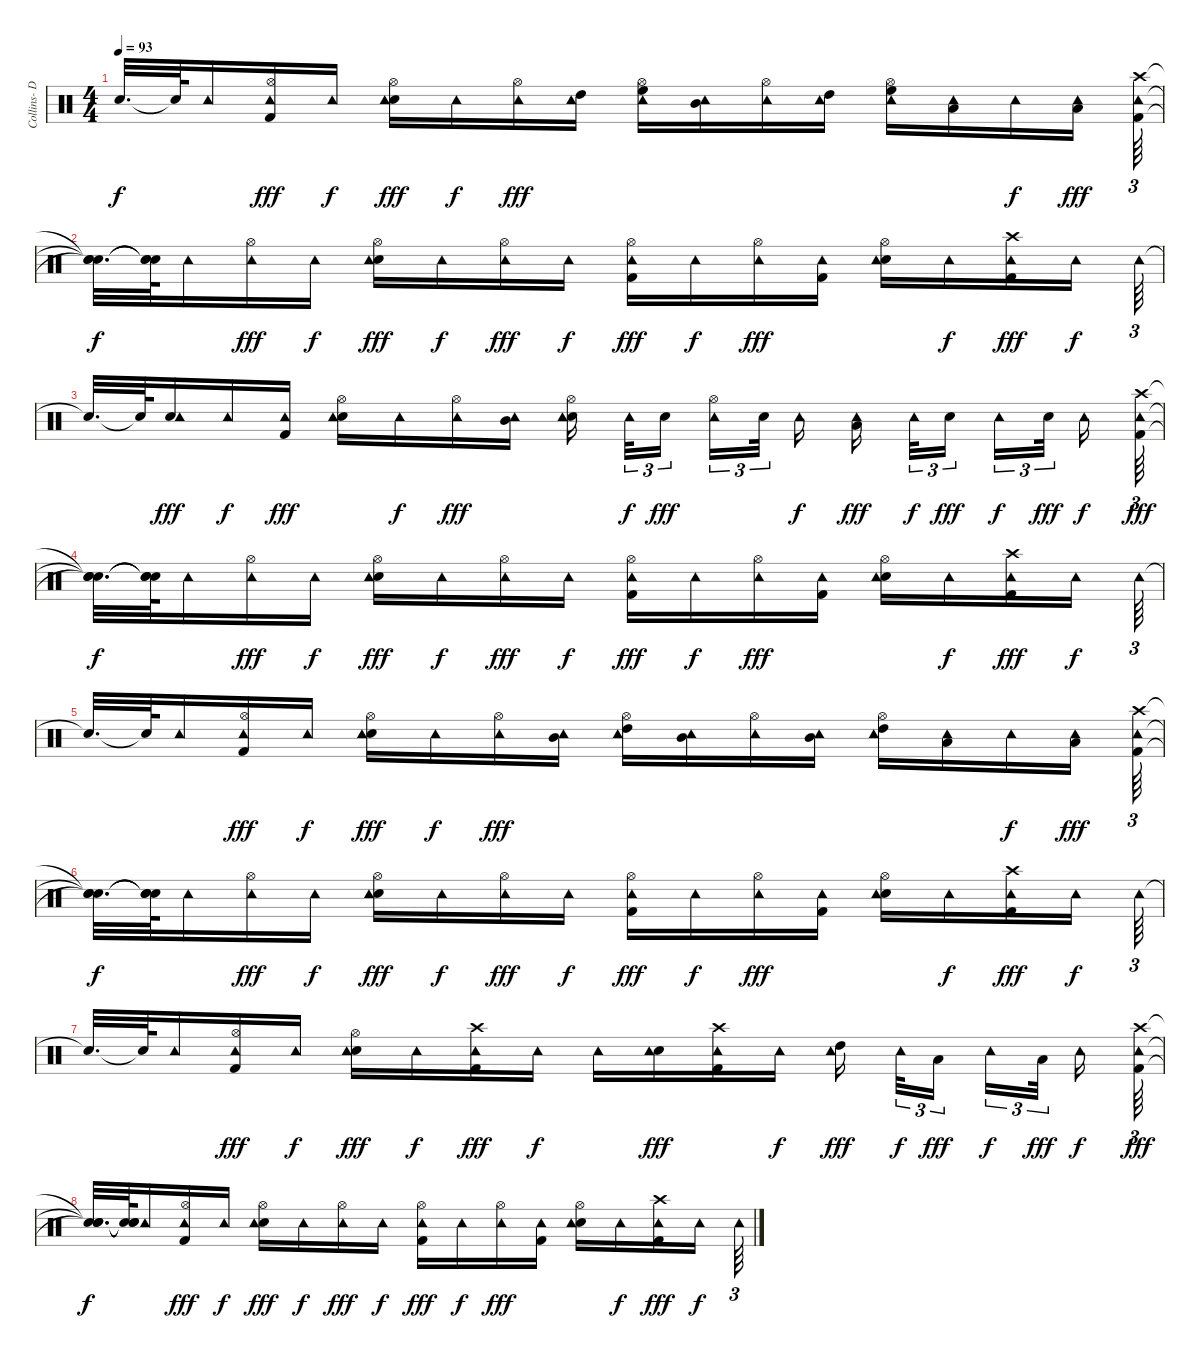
\track ("Collins- Drums" "Collins- D") {instrument percussion}
\staff {score}
\articulation defaults
\ts (4 4)
\tempo 93
\clef neutral
\ks c "Snare (hit)"{t}.32{d dy f} "Snare (hit)"{t}.64 "Tambourine (hit)".16
("Hi-Hat (open)" "Kick (hit) 2" "Tambourine (hit)").16{dy fff} "Tambourine (hit)".16{dy f} ("Hi-Hat (open)" "Electric Snare (hit)" "Tambourine (hit)").16{dy fff} "Tambourine (hit)".16{dy f} ("Hi-Hat (open)" "Tambourine (hit)").16{dy fff} ("High Tom (hit)" "Tambourine (hit)").16 ("High Floor Tom (hit)" "Hi-Hat (open)" "Tambourine (hit)").16 ("Mid Tom (hit)" "Tambourine (hit)").16 ("Hi-Hat (open)" "Tambourine (hit)").16 ("High Tom (hit)" "Tambourine (hit)").16 ("Hi-Hat (open)" "High Floor Tom (hit)" "Tambourine (hit)").16 ("Low Tom (hit)" "Tambourine (hit)").16 "Tambourine (hit)".16{dy f} ("Low Tom (hit)" "Tambourine (hit)").16{dy fff} ("Crash high (hit)" "Kick (hit) 2" "Tambourine (hit)").64{tu (3 2)} |
("Snare (hit)"{t} "Snare (hit)"{t} "Snare (hit)"{t}).32{d dy f} ("Snare (hit)"{t} "Snare (hit)"{t} "Snare (hit)"{t}).64 "Tambourine (hit)".16 ("Hi-Hat (open)" "Tambourine (hit)").16{dy fff} "Tambourine (hit)".16{dy f} ("Hi-Hat (open)" "Electric Snare (hit)" "Tambourine (hit)").16{dy fff} "Tambourine (hit)".16{dy f} ("Hi-Hat (open)" "Tambourine (hit)").16{dy fff} "Tambourine (hit)".16{dy f} ("Hi-Hat (open)" "Kick (hit) 2" "Tambourine (hit)").16{dy fff} "Tambourine (hit)".16{dy f} ("Hi-Hat (open)" "Tambourine (hit)").16{dy fff} ("Kick (hit) 2" "Tambourine (hit)").16 ("Hi-Hat (open)" "Electric Snare (hit)" "Tambourine (hit)").16 "Tambourine (hit)".16{dy f} ("Kick (hit) 2" "Crash high (hit)" "Tambourine (hit)").16{dy fff} "Tambourine (hit)".16{dy f} "Tambourine (hit)".64{tu (3 2)} |
"Snare (hit)"{t}.32{d} "Snare (hit)"{t}.64 ("Electric Snare (hit)" "Tambourine (hit)").16{dy fff} "Tambourine (hit)".16{dy f} ("Kick (hit) 2" "Tambourine (hit)").16{dy fff} ("Hi-Hat (open)" "Electric Snare (hit)" "Tambourine (hit)").16 "Tambourine (hit)".16{dy f} ("Hi-Hat (open)" "Tambourine (hit)").16{dy fff} ("Mid Tom (hit)" "Tambourine (hit)").16 ("Electric Snare (hit)" "Hi-Hat (open)" "Tambourine (hit)").16{beam splitsecondary} "Tambourine (hit)".32{tu (3 2) dy f} "Electric Snare (hit)".16{tu (3 2) dy fff beam splitsecondary} ("Hi-Hat (open)" "Tambourine (hit)").16{tu (3 2)} "Electric Snare (hit)".32{tu (3 2) beam splitsecondary} "Tambourine (hit)".16{dy f} ("Low Tom (hit)" "Tambourine (hit)").16{dy fff beam splitsecondary} "Tambourine (hit)".32{tu (3 2) dy f} "Electric Snare (hit)".16{tu (3 2) dy fff beam splitsecondary} "Tambourine (hit)".16{tu (3 2) dy f} "Electric Snare (hit)".32{tu (3 2) dy fff beam splitsecondary} "Tambourine (hit)".16{dy f} ("Crash high (hit)" "Kick (hit) 2" "Tambourine (hit)").64{tu (3 2) dy fff} |
("Snare (hit)"{t} "Snare (hit)"{t} "Snare (hit)"{t}).32{d dy f} ("Snare (hit)"{t} "Snare (hit)"{t} "Snare (hit)"{t}).64 "Tambourine (hit)".16 ("Hi-Hat (open)" "Tambourine (hit)").16{dy fff} "Tambourine (hit)".16{dy f} ("Hi-Hat (open)" "Electric Snare (hit)" "Tambourine (hit)").16{dy fff} "Tambourine (hit)".16{dy f} ("Hi-Hat (open)" "Tambourine (hit)").16{dy fff} "Tambourine (hit)".16{dy f} ("Hi-Hat (open)" "Kick (hit) 2" "Tambourine (hit)").16{dy fff} "Tambourine (hit)".16{dy f} ("Hi-Hat (open)" "Tambourine (hit)").16{dy fff} ("Kick (hit) 2" "Tambourine (hit)").16 ("Hi-Hat (open)" "Electric Snare (hit)" "Tambourine (hit)").16 "Tambourine (hit)".16{dy f} ("Kick (hit) 2" "Crash high (hit)" "Tambourine (hit)").16{dy fff} "Tambourine (hit)".16{dy f} "Tambourine (hit)".64{tu (3 2)} |
"Snare (hit)"{t}.32{d} "Snare (hit)"{t}.64 "Tambourine (hit)".16 ("Hi-Hat (open)" "Kick (hit) 2" "Tambourine (hit)").16{dy fff} "Tambourine (hit)".16{dy f} ("Hi-Hat (open)" "Electric Snare (hit)" "Tambourine (hit)").16{dy fff} "Tambourine (hit)".16{dy f} ("Hi-Hat (open)" "Tambourine (hit)").16{dy fff} ("Mid Tom (hit)" "Tambourine (hit)").16 ("High Tom (hit)" "Hi-Hat (open)" "Tambourine (hit)").16 ("Mid Tom (hit)" "Tambourine (hit)").16 ("Hi-Hat (open)" "Tambourine (hit)").16 ("Mid Tom (hit)" "Tambourine (hit)").16 ("Hi-Hat (open)" "High Tom (hit)" "Tambourine (hit)").16 ("Low Tom (hit)" "Tambourine (hit)").16 "Tambourine (hit)".16{dy f} ("Low Tom (hit)" "Tambourine (hit)").16{dy fff} ("Crash high (hit)" "Kick (hit) 2" "Tambourine (hit)").64{tu (3 2)} |
("Snare (hit)"{t} "Snare (hit)"{t} "Snare (hit)"{t}).32{d dy f} ("Snare (hit)"{t} "Snare (hit)"{t} "Snare (hit)"{t}).64 "Tambourine (hit)".16 ("Hi-Hat (open)" "Tambourine (hit)").16{dy fff} "Tambourine (hit)".16{dy f} ("Hi-Hat (open)" "Electric Snare (hit)" "Tambourine (hit)").16{dy fff} "Tambourine (hit)".16{dy f} ("Hi-Hat (open)" "Tambourine (hit)").16{dy fff} "Tambourine (hit)".16{dy f} ("Hi-Hat (open)" "Kick (hit) 2" "Tambourine (hit)").16{dy fff} "Tambourine (hit)".16{dy f} ("Hi-Hat (open)" "Tambourine (hit)").16{dy fff} ("Kick (hit) 2" "Tambourine (hit)").16 ("Hi-Hat (open)" "Electric Snare (hit)" "Tambourine (hit)").16 "Tambourine (hit)".16{dy f} ("Kick (hit) 2" "Crash high (hit)" "Tambourine (hit)").16{dy fff} "Tambourine (hit)".16{dy f} "Tambourine (hit)".64{tu (3 2)} |
"Snare (hit)"{t}.32{d} "Snare (hit)"{t}.64 "Tambourine (hit)".16 ("Hi-Hat (open)" "Kick (hit) 2" "Tambourine (hit)").16{dy fff} "Tambourine (hit)".16{dy f} ("Hi-Hat (open)" "Electric Snare (hit)" "Tambourine (hit)").16{dy fff} "Tambourine (hit)".16{dy f} ("Kick (hit) 2" "Crash high (hit)" "Tambourine (hit)").16{dy fff} "Tambourine (hit)".16{dy f} "Tambourine (hit)".16 ("Electric Snare (hit)" "Tambourine (hit)").16{dy fff} ("Kick (hit) 2" "Crash high (hit)" "Tambourine (hit)").16 "Tambourine (hit)".16{dy f} ("High Tom (hit)" "Tambourine (hit)").16{dy fff beam splitsecondary} "Tambourine (hit)".32{tu (3 2) dy f} "Low Tom (hit)".16{tu (3 2) dy fff beam splitsecondary} "Tambourine (hit)".16{tu (3 2) dy f} "Low Tom (hit)".32{tu (3 2) dy fff beam splitsecondary} "Tambourine (hit)".16{dy f} ("Kick (hit) 2" "Crash high (hit)" "Tambourine (hit)").64{tu (3 2) dy fff} |
("Snare (hit)"{t} "Snare (hit)"{t} "Snare (hit)"{t}).32{d dy f} ("Snare (hit)"{t} "Snare (hit)"{t} "Snare (hit)"{t}).64 "Tambourine (hit)".16 ("Hi-Hat (open)" "Kick (hit) 2" "Tambourine (hit)").16{dy fff} "Tambourine (hit)".16{dy f} ("Hi-Hat (open)" "Electric Snare (hit)" "Tambourine (hit)").16{dy fff} "Tambourine (hit)".16{dy f} ("Hi-Hat (open)" "Tambourine (hit)").16{dy fff} "Tambourine (hit)".16{dy f} ("Hi-Hat (open)" "Kick (hit) 2" "Tambourine (hit)").16{dy fff} "Tambourine (hit)".16{dy f} ("Hi-Hat (open)" "Tambourine (hit)").16{dy fff} ("Kick (hit) 2" "Tambourine (hit)").16 ("Hi-Hat (open)" "Electric Snare (hit)" "Tambourine (hit)").16 "Tambourine (hit)".16{dy f} ("Kick (hit) 2" "Crash high (hit)" "Tambourine (hit)").16{dy fff} "Tambourine (hit)".16{dy f} "Tambourine (hit)".64{tu (3 2)}
